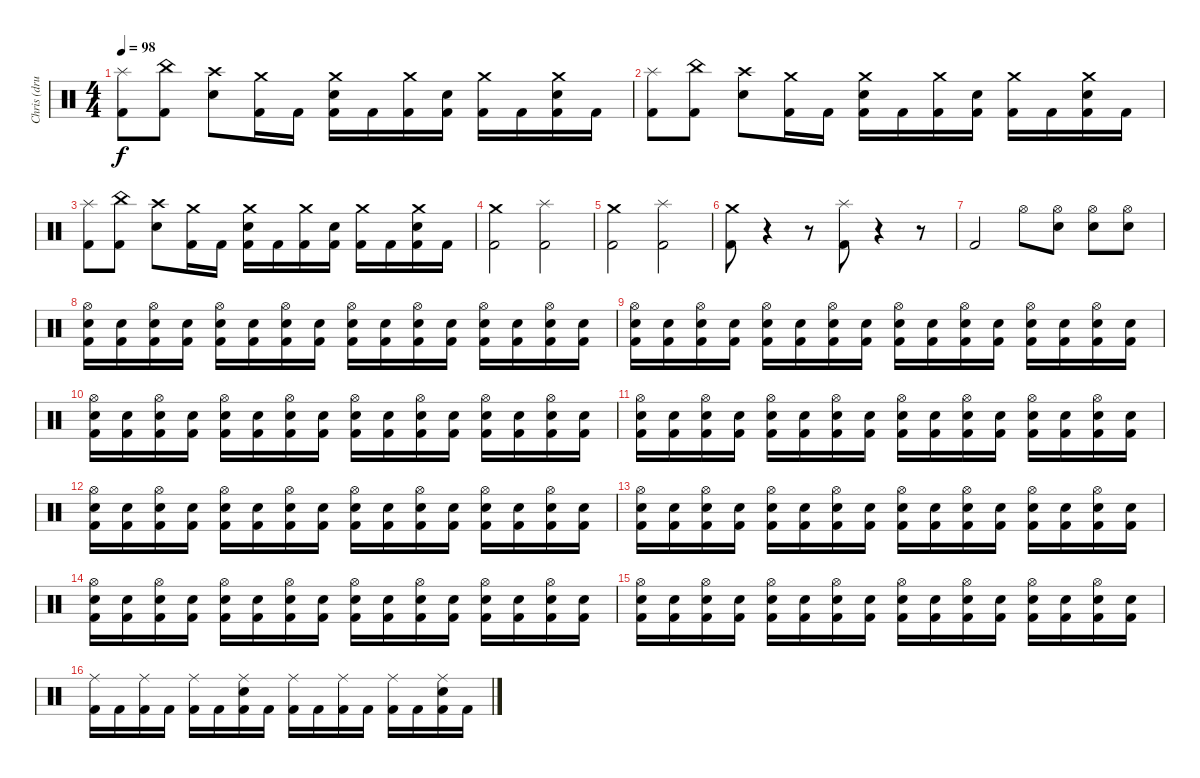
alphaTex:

\track ("Chris (drums)" "Chris (dru") {instrument percussion}
\staff {score}
\articulation defaults
\ts (4 4)
\tempo 98
\clef neutral
\ks c
("Splash (hit)" "Kick (hit) 2").8{dy f} ("China (hit)" "Kick (hit) 2").8 ("Crash high (hit)" "Electric Snare (hit)").8 ("Crash medium (hit)" "Kick (hit) 2").16 "Kick (hit) 2".16 ("Crash medium (hit)" "Electric Snare (hit)" "Kick (hit) 2").16 "Kick (hit) 2".16 ("Crash medium (hit)" "Kick (hit) 2").16 ("Electric Snare (hit)" "Kick (hit) 2").16 ("Crash medium (hit)" "Kick (hit) 2").16 "Kick (hit) 2".16 ("Crash medium (hit)" "Electric Snare (hit)" "Kick (hit) 2").16 "Kick (hit) 2".16 |
("Splash (hit)" "Kick (hit) 2").8 ("China (hit)" "Kick (hit) 2").8 ("Crash high (hit)" "Electric Snare (hit)").8 ("Crash medium (hit)" "Kick (hit) 2").16 "Kick (hit) 2".16 ("Crash medium (hit)" "Electric Snare (hit)" "Kick (hit) 2").16 "Kick (hit) 2".16 ("Crash medium (hit)" "Kick (hit) 2").16 ("Electric Snare (hit)" "Kick (hit) 2").16 ("Crash medium (hit)" "Kick (hit) 2").16 "Kick (hit) 2".16 ("Crash medium (hit)" "Electric Snare (hit)" "Kick (hit) 2").16 "Kick (hit) 2".16 |
("Splash (hit)" "Kick (hit) 2").8 ("China (hit)" "Kick (hit) 2").8 ("Crash high (hit)" "Electric Snare (hit)").8 ("Crash medium (hit)" "Kick (hit) 2").16 "Kick (hit) 2".16 ("Crash medium (hit)" "Electric Snare (hit)" "Kick (hit) 2").16 "Kick (hit) 2".16 ("Crash medium (hit)" "Kick (hit) 2").16 ("Electric Snare (hit)" "Kick (hit) 2").16 ("Crash medium (hit)" "Kick (hit) 2").16 "Kick (hit) 2".16 ("Crash medium (hit)" "Electric Snare (hit)" "Kick (hit) 2").16 "Kick (hit) 2".16 |
("Crash medium (hit)" "Kick (hit) 2").2 ("Splash (hit)" "Kick (hit) 2").2 |
("Crash medium (hit)" "Kick (hit) 2").2 ("Splash (hit)" "Kick (hit) 2").2 |
("Crash medium (hit)" "Kick (hit) 2").8 r.4 r.8 ("Splash (hit)" "Kick (hit) 2").8 r.4 r.8 |
"Kick (hit) 2".2 "Hi-Hat (open)".8 ("Hi-Hat (open)" "Electric Snare (hit)").8 ("Hi-Hat (open)" "Electric Snare (hit)").8 ("Hi-Hat (open)" "Electric Snare (hit)").8 |
("Hi-Hat (open)" "Electric Snare (hit)" "Kick (hit) 2").16 ("Electric Snare (hit)" "Kick (hit) 2").16 ("Hi-Hat (open)" "Electric Snare (hit)" "Kick (hit) 2").16 ("Electric Snare (hit)" "Kick (hit) 2").16 ("Hi-Hat (open)" "Electric Snare (hit)" "Kick (hit) 2").16 ("Electric Snare (hit)" "Kick (hit) 2").16 ("Hi-Hat (open)" "Electric Snare (hit)" "Kick (hit) 2").16 ("Electric Snare (hit)" "Kick (hit) 2").16 ("Hi-Hat (open)" "Electric Snare (hit)" "Kick (hit) 2").16 ("Electric Snare (hit)" "Kick (hit) 2").16 ("Hi-Hat (open)" "Electric Snare (hit)" "Kick (hit) 2").16 ("Electric Snare (hit)" "Kick (hit) 2").16 ("Hi-Hat (open)" "Electric Snare (hit)" "Kick (hit) 2").16 ("Electric Snare (hit)" "Kick (hit) 2").16 ("Hi-Hat (open)" "Electric Snare (hit)" "Kick (hit) 2").16 ("Electric Snare (hit)" "Kick (hit) 2").16 |
("Hi-Hat (open)" "Electric Snare (hit)" "Kick (hit) 2").16 ("Electric Snare (hit)" "Kick (hit) 2").16 ("Hi-Hat (open)" "Electric Snare (hit)" "Kick (hit) 2").16 ("Electric Snare (hit)" "Kick (hit) 2").16 ("Hi-Hat (open)" "Electric Snare (hit)" "Kick (hit) 2").16 ("Electric Snare (hit)" "Kick (hit) 2").16 ("Hi-Hat (open)" "Electric Snare (hit)" "Kick (hit) 2").16 ("Electric Snare (hit)" "Kick (hit) 2").16 ("Hi-Hat (open)" "Electric Snare (hit)" "Kick (hit) 2").16 ("Electric Snare (hit)" "Kick (hit) 2").16 ("Hi-Hat (open)" "Electric Snare (hit)" "Kick (hit) 2").16 ("Electric Snare (hit)" "Kick (hit) 2").16 ("Hi-Hat (open)" "Electric Snare (hit)" "Kick (hit) 2").16 ("Electric Snare (hit)" "Kick (hit) 2").16 ("Hi-Hat (open)" "Electric Snare (hit)" "Kick (hit) 2").16 ("Electric Snare (hit)" "Kick (hit) 2").16 |
("Hi-Hat (open)" "Electric Snare (hit)" "Kick (hit) 2").16 ("Electric Snare (hit)" "Kick (hit) 2").16 ("Hi-Hat (open)" "Electric Snare (hit)" "Kick (hit) 2").16 ("Electric Snare (hit)" "Kick (hit) 2").16 ("Hi-Hat (open)" "Electric Snare (hit)" "Kick (hit) 2").16 ("Electric Snare (hit)" "Kick (hit) 2").16 ("Hi-Hat (open)" "Electric Snare (hit)" "Kick (hit) 2").16 ("Electric Snare (hit)" "Kick (hit) 2").16 ("Hi-Hat (open)" "Electric Snare (hit)" "Kick (hit) 2").16 ("Electric Snare (hit)" "Kick (hit) 2").16 ("Hi-Hat (open)" "Electric Snare (hit)" "Kick (hit) 2").16 ("Electric Snare (hit)" "Kick (hit) 2").16 ("Hi-Hat (open)" "Electric Snare (hit)" "Kick (hit) 2").16 ("Electric Snare (hit)" "Kick (hit) 2").16 ("Hi-Hat (open)" "Electric Snare (hit)" "Kick (hit) 2").16 ("Electric Snare (hit)" "Kick (hit) 2").16 |
("Hi-Hat (open)" "Electric Snare (hit)" "Kick (hit) 2").16 ("Electric Snare (hit)" "Kick (hit) 2").16 ("Hi-Hat (open)" "Electric Snare (hit)" "Kick (hit) 2").16 ("Electric Snare (hit)" "Kick (hit) 2").16 ("Hi-Hat (open)" "Electric Snare (hit)" "Kick (hit) 2").16 ("Electric Snare (hit)" "Kick (hit) 2").16 ("Hi-Hat (open)" "Electric Snare (hit)" "Kick (hit) 2").16 ("Electric Snare (hit)" "Kick (hit) 2").16 ("Hi-Hat (open)" "Electric Snare (hit)" "Kick (hit) 2").16 ("Electric Snare (hit)" "Kick (hit) 2").16 ("Hi-Hat (open)" "Electric Snare (hit)" "Kick (hit) 2").16 ("Electric Snare (hit)" "Kick (hit) 2").16 ("Hi-Hat (open)" "Electric Snare (hit)" "Kick (hit) 2").16 ("Electric Snare (hit)" "Kick (hit) 2").16 ("Hi-Hat (open)" "Electric Snare (hit)" "Kick (hit) 2").16 ("Electric Snare (hit)" "Kick (hit) 2").16 |
("Hi-Hat (open)" "Electric Snare (hit)" "Kick (hit) 2").16 ("Electric Snare (hit)" "Kick (hit) 2").16 ("Hi-Hat (open)" "Electric Snare (hit)" "Kick (hit) 2").16 ("Electric Snare (hit)" "Kick (hit) 2").16 ("Hi-Hat (open)" "Electric Snare (hit)" "Kick (hit) 2").16 ("Electric Snare (hit)" "Kick (hit) 2").16 ("Hi-Hat (open)" "Electric Snare (hit)" "Kick (hit) 2").16 ("Electric Snare (hit)" "Kick (hit) 2").16 ("Hi-Hat (open)" "Electric Snare (hit)" "Kick (hit) 2").16 ("Electric Snare (hit)" "Kick (hit) 2").16 ("Hi-Hat (open)" "Electric Snare (hit)" "Kick (hit) 2").16 ("Electric Snare (hit)" "Kick (hit) 2").16 ("Hi-Hat (open)" "Electric Snare (hit)" "Kick (hit) 2").16 ("Electric Snare (hit)" "Kick (hit) 2").16 ("Hi-Hat (open)" "Electric Snare (hit)" "Kick (hit) 2").16 ("Electric Snare (hit)" "Kick (hit) 2").16 |
("Hi-Hat (open)" "Electric Snare (hit)" "Kick (hit) 2").16 ("Electric Snare (hit)" "Kick (hit) 2").16 ("Hi-Hat (open)" "Electric Snare (hit)" "Kick (hit) 2").16 ("Electric Snare (hit)" "Kick (hit) 2").16 ("Hi-Hat (open)" "Electric Snare (hit)" "Kick (hit) 2").16 ("Electric Snare (hit)" "Kick (hit) 2").16 ("Hi-Hat (open)" "Electric Snare (hit)" "Kick (hit) 2").16 ("Electric Snare (hit)" "Kick (hit) 2").16 ("Hi-Hat (open)" "Electric Snare (hit)" "Kick (hit) 2").16 ("Electric Snare (hit)" "Kick (hit) 2").16 ("Hi-Hat (open)" "Electric Snare (hit)" "Kick (hit) 2").16 ("Electric Snare (hit)" "Kick (hit) 2").16 ("Hi-Hat (open)" "Electric Snare (hit)" "Kick (hit) 2").16 ("Electric Snare (hit)" "Kick (hit) 2").16 ("Hi-Hat (open)" "Electric Snare (hit)" "Kick (hit) 2").16 ("Electric Snare (hit)" "Kick (hit) 2").16 |
("Hi-Hat (open)" "Electric Snare (hit)" "Kick (hit) 2").16 ("Electric Snare (hit)" "Kick (hit) 2").16 ("Hi-Hat (open)" "Electric Snare (hit)" "Kick (hit) 2").16 ("Electric Snare (hit)" "Kick (hit) 2").16 ("Hi-Hat (open)" "Electric Snare (hit)" "Kick (hit) 2").16 ("Electric Snare (hit)" "Kick (hit) 2").16 ("Hi-Hat (open)" "Electric Snare (hit)" "Kick (hit) 2").16 ("Electric Snare (hit)" "Kick (hit) 2").16 ("Hi-Hat (open)" "Electric Snare (hit)" "Kick (hit) 2").16 ("Electric Snare (hit)" "Kick (hit) 2").16 ("Hi-Hat (open)" "Electric Snare (hit)" "Kick (hit) 2").16 ("Electric Snare (hit)" "Kick (hit) 2").16 ("Hi-Hat (open)" "Electric Snare (hit)" "Kick (hit) 2").16 ("Electric Snare (hit)" "Kick (hit) 2").16 ("Hi-Hat (open)" "Electric Snare (hit)" "Kick (hit) 2").16 ("Electric Snare (hit)" "Kick (hit) 2").16 |
("Hi-Hat (open)" "Electric Snare (hit)" "Kick (hit) 2").16 ("Electric Snare (hit)" "Kick (hit) 2").16 ("Hi-Hat (open)" "Electric Snare (hit)" "Kick (hit) 2").16 ("Electric Snare (hit)" "Kick (hit) 2").16 ("Hi-Hat (open)" "Electric Snare (hit)" "Kick (hit) 2").16 ("Electric Snare (hit)" "Kick (hit) 2").16 ("Hi-Hat (open)" "Electric Snare (hit)" "Kick (hit) 2").16 ("Electric Snare (hit)" "Kick (hit) 2").16 ("Hi-Hat (open)" "Electric Snare (hit)" "Kick (hit) 2").16 ("Electric Snare (hit)" "Kick (hit) 2").16 ("Hi-Hat (open)" "Electric Snare (hit)" "Kick (hit) 2").16 ("Electric Snare (hit)" "Kick (hit) 2").16 ("Hi-Hat (open)" "Electric Snare (hit)" "Kick (hit) 2").16 ("Electric Snare (hit)" "Kick (hit) 2").16 ("Hi-Hat (open)" "Electric Snare (hit)" "Kick (hit) 2").16 ("Electric Snare (hit)" "Kick (hit) 2").16 |
("Ride (middle)" "Kick (hit) 2").16 "Kick (hit) 2".16 ("Ride (middle)" "Kick (hit) 2").16 "Kick (hit) 2".16 ("Ride (middle)" "Kick (hit) 2").16 "Kick (hit) 2".16 ("Ride (middle)" "Electric Snare (hit)" "Kick (hit) 2").16 "Kick (hit) 2".16 ("Ride (middle)" "Kick (hit) 2").16 "Kick (hit) 2".16 ("Ride (middle)" "Kick (hit) 2").16 "Kick (hit) 2".16 ("Ride (middle)" "Kick (hit) 2").16 "Kick (hit) 2".16 ("Ride (middle)" "Electric Snare (hit)" "Kick (hit) 2").16 "Kick (hit) 2".16
